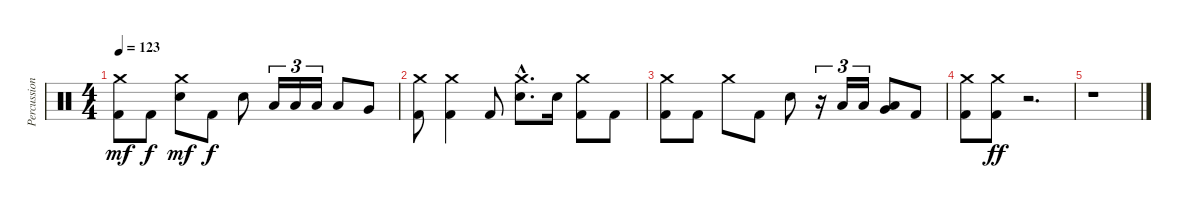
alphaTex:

\track ("Percussions" "Percussion") {instrument percussion}
\staff {score}
\articulation defaults
\ts (4 4)
\tempo 123
\clef neutral
\ks c
("Kick (hit) 2" "Crash medium (hit)").8{dy mf} "Kick (hit) 2".8{dy f} ("Electric Snare (hit)" "Crash medium (hit)").8{dy mf} "Kick (hit) 2".8{dy f} "Electric Snare (hit)".8 "Low Floor Tom (hit)".16{tu (3 2)} "Low Floor Tom (hit)".16{tu (3 2)} "Low Floor Tom (hit)".16{tu (3 2)} "Low Floor Tom (hit)".8 "Very Low Tom (hit)".8 |
("Kick (hit) 2" "Crash medium (hit)").8 ("Kick (hit) 2" "Crash medium (hit)").4 "Kick (hit) 2".8 ("Electric Snare (hit)"{hac} "Crash medium (hit)"{hac}).8{d} "Electric Snare (hit)".16 ("Kick (hit) 2" "Crash medium (hit)").8 "Kick (hit) 2".8 |
("Kick (hit) 2" "Crash medium (hit)").8 "Kick (hit) 2".8 "Crash medium (hit)".8 "Kick (hit) 2".8 "Electric Snare (hit)".8 r.16{tu (3 2)} "Low Floor Tom (hit)".16{tu (3 2)} "Low Floor Tom (hit)".16{tu (3 2)} ("Low Floor Tom (hit)" "Very Low Tom (hit)").8 "Kick (hit) 2".8 |
("Kick (hit) 2" "Crash medium (hit)").8 ("Kick (hit) 2" "Crash medium (hit)").8{dy ff} r.2{d} |
r.1
